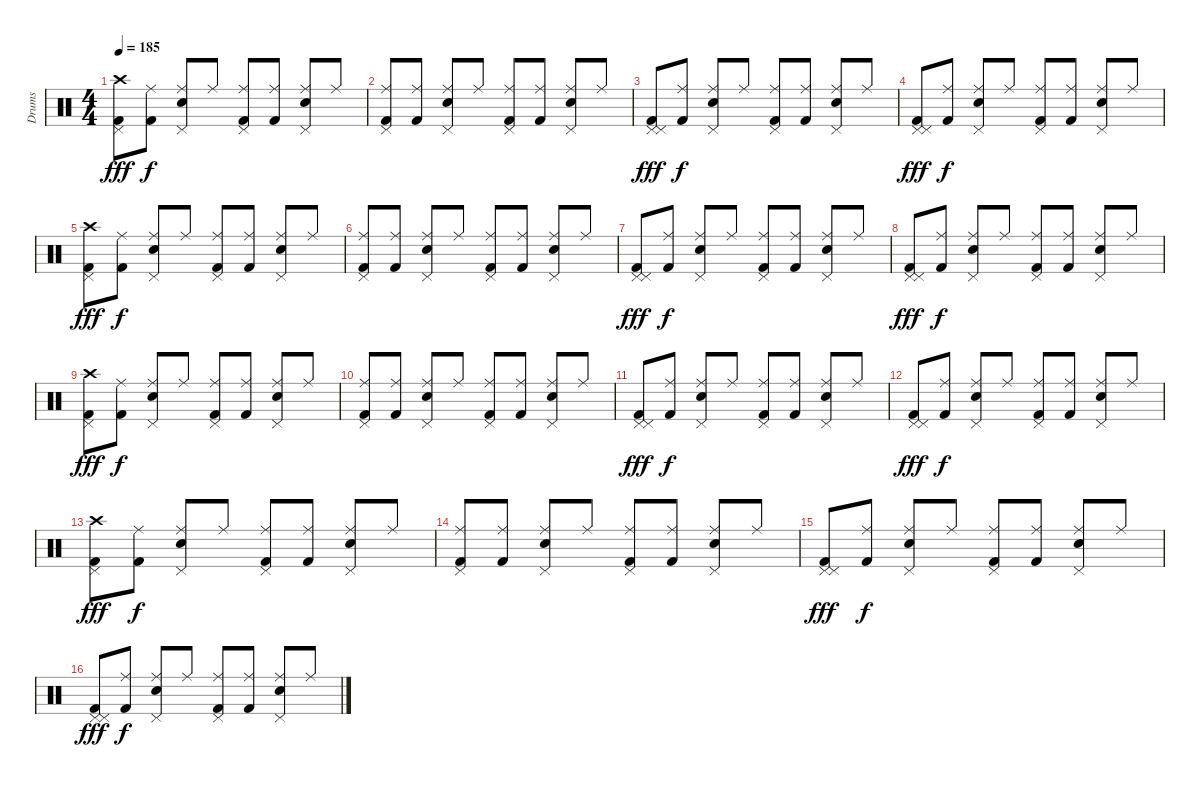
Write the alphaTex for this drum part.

\track ("Drums" "Drums") {instrument percussion}
\staff {score}
\articulation defaults
\ts (4 4)
\tempo 185
\clef neutral
\ks c
("Crash high (hit)" "Pedal Hi-Hat (hit)" "Kick (hit) 2").8{dy fff} ("Ride (middle)" "Kick (hit) 2").8{dy f} ("Pedal Hi-Hat (hit)" "Ride (middle)" "Snare (hit) 2").8 "Ride (middle)".8 ("Pedal Hi-Hat (hit)" "Ride (middle)" "Kick (hit) 2").8 ("Ride (middle)" "Kick (hit) 2").8 ("Pedal Hi-Hat (hit)" "Ride (middle)" "Snare (hit) 2").8 "Ride (middle)".8 |
("Pedal Hi-Hat (hit)" "Ride (middle)" "Kick (hit) 2").8 ("Ride (middle)" "Kick (hit) 2").8 ("Pedal Hi-Hat (hit)" "Ride (middle)" "Snare (hit) 2").8 "Ride (middle)".8 ("Pedal Hi-Hat (hit)" "Ride (middle)" "Kick (hit) 2").8 ("Ride (middle)" "Kick (hit) 2").8 ("Pedal Hi-Hat (hit)" "Ride (middle)" "Snare (hit) 2").8 "Ride (middle)".8 |
("Pedal Hi-Hat (hit)" "Pedal Hi-Hat (hit)" "Kick (hit) 2").8{dy fff} ("Ride (middle)" "Kick (hit) 2").8{dy f} ("Pedal Hi-Hat (hit)" "Ride (middle)" "Snare (hit) 2").8 "Ride (middle)".8 ("Pedal Hi-Hat (hit)" "Ride (middle)" "Kick (hit) 2").8 ("Ride (middle)" "Kick (hit) 2").8 ("Pedal Hi-Hat (hit)" "Ride (middle)" "Snare (hit) 2").8 "Ride (middle)".8 |
("Pedal Hi-Hat (hit)" "Pedal Hi-Hat (hit)" "Kick (hit) 2").8{dy fff} ("Ride (middle)" "Kick (hit) 2").8{dy f} ("Pedal Hi-Hat (hit)" "Ride (middle)" "Snare (hit) 2").8 "Ride (middle)".8 ("Pedal Hi-Hat (hit)" "Ride (middle)" "Kick (hit) 2").8 ("Ride (middle)" "Kick (hit) 2").8 ("Pedal Hi-Hat (hit)" "Ride (middle)" "Snare (hit) 2").8 "Ride (middle)".8 |
("Crash high (hit)" "Pedal Hi-Hat (hit)" "Kick (hit) 2").8{dy fff} ("Ride (middle)" "Kick (hit) 2").8{dy f} ("Pedal Hi-Hat (hit)" "Ride (middle)" "Snare (hit) 2").8 "Ride (middle)".8 ("Pedal Hi-Hat (hit)" "Ride (middle)" "Kick (hit) 2").8 ("Ride (middle)" "Kick (hit) 2").8 ("Pedal Hi-Hat (hit)" "Ride (middle)" "Snare (hit) 2").8 "Ride (middle)".8 |
("Pedal Hi-Hat (hit)" "Ride (middle)" "Kick (hit) 2").8 ("Ride (middle)" "Kick (hit) 2").8 ("Pedal Hi-Hat (hit)" "Ride (middle)" "Snare (hit) 2").8 "Ride (middle)".8 ("Pedal Hi-Hat (hit)" "Ride (middle)" "Kick (hit) 2").8 ("Ride (middle)" "Kick (hit) 2").8 ("Pedal Hi-Hat (hit)" "Ride (middle)" "Snare (hit) 2").8 "Ride (middle)".8 |
("Pedal Hi-Hat (hit)" "Pedal Hi-Hat (hit)" "Kick (hit) 2").8{dy fff} ("Ride (middle)" "Kick (hit) 2").8{dy f} ("Pedal Hi-Hat (hit)" "Ride (middle)" "Snare (hit) 2").8 "Ride (middle)".8 ("Pedal Hi-Hat (hit)" "Ride (middle)" "Kick (hit) 2").8 ("Ride (middle)" "Kick (hit) 2").8 ("Pedal Hi-Hat (hit)" "Ride (middle)" "Snare (hit) 2").8 "Ride (middle)".8 |
("Pedal Hi-Hat (hit)" "Pedal Hi-Hat (hit)" "Kick (hit) 2").8{dy fff} ("Ride (middle)" "Kick (hit) 2").8{dy f} ("Pedal Hi-Hat (hit)" "Ride (middle)" "Snare (hit) 2").8 "Ride (middle)".8 ("Pedal Hi-Hat (hit)" "Ride (middle)" "Kick (hit) 2").8 ("Ride (middle)" "Kick (hit) 2").8 ("Pedal Hi-Hat (hit)" "Ride (middle)" "Snare (hit) 2").8 "Ride (middle)".8 |
("Crash high (hit)" "Pedal Hi-Hat (hit)" "Kick (hit) 2").8{dy fff} ("Ride (middle)" "Kick (hit) 2").8{dy f} ("Pedal Hi-Hat (hit)" "Ride (middle)" "Snare (hit) 2").8 "Ride (middle)".8 ("Pedal Hi-Hat (hit)" "Ride (middle)" "Kick (hit) 2").8 ("Ride (middle)" "Kick (hit) 2").8 ("Pedal Hi-Hat (hit)" "Ride (middle)" "Snare (hit) 2").8 "Ride (middle)".8 |
("Pedal Hi-Hat (hit)" "Ride (middle)" "Kick (hit) 2").8 ("Ride (middle)" "Kick (hit) 2").8 ("Pedal Hi-Hat (hit)" "Ride (middle)" "Snare (hit) 2").8 "Ride (middle)".8 ("Pedal Hi-Hat (hit)" "Ride (middle)" "Kick (hit) 2").8 ("Ride (middle)" "Kick (hit) 2").8 ("Pedal Hi-Hat (hit)" "Ride (middle)" "Snare (hit) 2").8 "Ride (middle)".8 |
("Pedal Hi-Hat (hit)" "Pedal Hi-Hat (hit)" "Kick (hit) 2").8{dy fff} ("Ride (middle)" "Kick (hit) 2").8{dy f} ("Pedal Hi-Hat (hit)" "Ride (middle)" "Snare (hit) 2").8 "Ride (middle)".8 ("Pedal Hi-Hat (hit)" "Ride (middle)" "Kick (hit) 2").8 ("Ride (middle)" "Kick (hit) 2").8 ("Pedal Hi-Hat (hit)" "Ride (middle)" "Snare (hit) 2").8 "Ride (middle)".8 |
("Pedal Hi-Hat (hit)" "Pedal Hi-Hat (hit)" "Kick (hit) 2").8{dy fff} ("Ride (middle)" "Kick (hit) 2").8{dy f} ("Pedal Hi-Hat (hit)" "Ride (middle)" "Snare (hit) 2").8 "Ride (middle)".8 ("Pedal Hi-Hat (hit)" "Ride (middle)" "Kick (hit) 2").8 ("Ride (middle)" "Kick (hit) 2").8 ("Pedal Hi-Hat (hit)" "Ride (middle)" "Snare (hit) 2").8 "Ride (middle)".8 |
("Crash high (hit)" "Pedal Hi-Hat (hit)" "Kick (hit) 2").8{dy fff} ("Ride (middle)" "Kick (hit) 2").8{dy f} ("Pedal Hi-Hat (hit)" "Ride (middle)" "Snare (hit) 2").8 "Ride (middle)".8 ("Pedal Hi-Hat (hit)" "Ride (middle)" "Kick (hit) 2").8 ("Ride (middle)" "Kick (hit) 2").8 ("Pedal Hi-Hat (hit)" "Ride (middle)" "Snare (hit) 2").8 "Ride (middle)".8 |
("Pedal Hi-Hat (hit)" "Ride (middle)" "Kick (hit) 2").8 ("Ride (middle)" "Kick (hit) 2").8 ("Pedal Hi-Hat (hit)" "Ride (middle)" "Snare (hit) 2").8 "Ride (middle)".8 ("Pedal Hi-Hat (hit)" "Ride (middle)" "Kick (hit) 2").8 ("Ride (middle)" "Kick (hit) 2").8 ("Pedal Hi-Hat (hit)" "Ride (middle)" "Snare (hit) 2").8 "Ride (middle)".8 |
("Pedal Hi-Hat (hit)" "Pedal Hi-Hat (hit)" "Kick (hit) 2").8{dy fff} ("Ride (middle)" "Kick (hit) 2").8{dy f} ("Pedal Hi-Hat (hit)" "Ride (middle)" "Snare (hit) 2").8 "Ride (middle)".8 ("Pedal Hi-Hat (hit)" "Ride (middle)" "Kick (hit) 2").8 ("Ride (middle)" "Kick (hit) 2").8 ("Pedal Hi-Hat (hit)" "Ride (middle)" "Snare (hit) 2").8 "Ride (middle)".8 |
("Pedal Hi-Hat (hit)" "Pedal Hi-Hat (hit)" "Kick (hit) 2").8{dy fff} ("Ride (middle)" "Kick (hit) 2").8{dy f} ("Pedal Hi-Hat (hit)" "Ride (middle)" "Snare (hit) 2").8 "Ride (middle)".8 ("Pedal Hi-Hat (hit)" "Ride (middle)" "Kick (hit) 2").8 ("Ride (middle)" "Kick (hit) 2").8 ("Pedal Hi-Hat (hit)" "Ride (middle)" "Snare (hit) 2").8 "Ride (middle)".8
